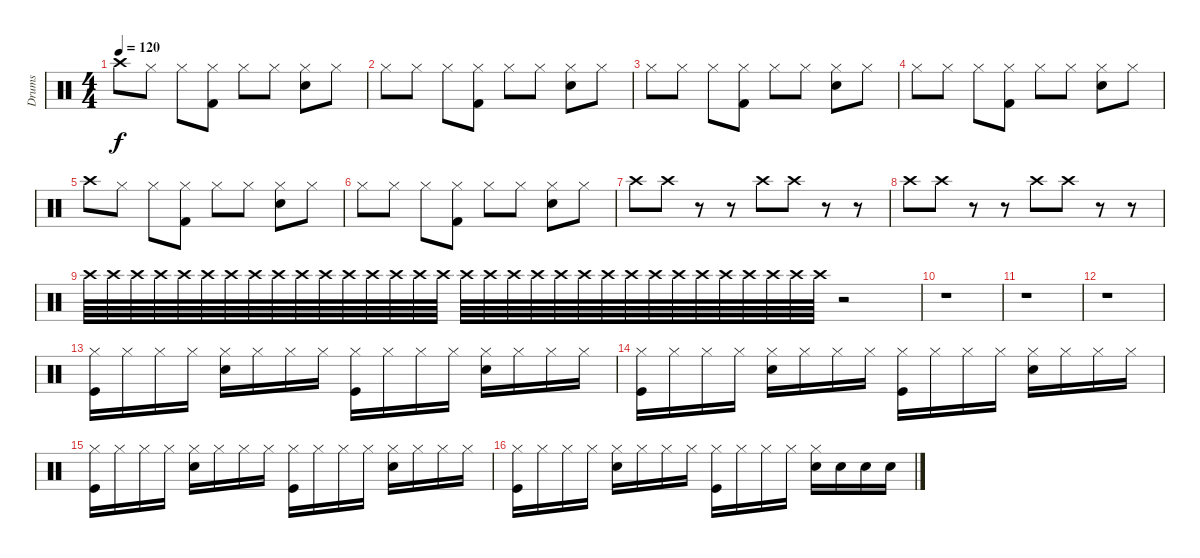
\track ("Drums" "Drums") {instrument percussion}
\staff {score}
\articulation defaults
\ts (4 4)
\tempo 120
\clef neutral
\ks c "Crash high (hit)".8{dy f} "Hi-Hat (closed)".8 "Hi-Hat (closed)".8
("Kick (hit) 2" "Hi-Hat (closed)").8 "Hi-Hat (closed)".8 "Hi-Hat (closed)".8 ("Electric Snare (hit)" "Hi-Hat (closed)").8 "Hi-Hat (closed)".8 |
"Hi-Hat (closed)".8 "Hi-Hat (closed)".8 "Hi-Hat (closed)".8 ("Kick (hit) 2" "Hi-Hat (closed)").8 "Hi-Hat (closed)".8 "Hi-Hat (closed)".8 ("Electric Snare (hit)" "Hi-Hat (closed)").8 "Hi-Hat (closed)".8 |
"Hi-Hat (closed)".8 "Hi-Hat (closed)".8 "Hi-Hat (closed)".8 ("Kick (hit) 2" "Hi-Hat (closed)").8 "Hi-Hat (closed)".8 "Hi-Hat (closed)".8 ("Electric Snare (hit)" "Hi-Hat (closed)").8 "Hi-Hat (closed)".8 |
"Hi-Hat (closed)".8 "Hi-Hat (closed)".8 "Hi-Hat (closed)".8 ("Kick (hit) 2" "Hi-Hat (closed)").8 "Hi-Hat (closed)".8 "Hi-Hat (closed)".8 ("Electric Snare (hit)" "Hi-Hat (closed)").8 "Hi-Hat (closed)".8 |
"Crash high (hit)".8 "Hi-Hat (closed)".8 "Hi-Hat (closed)".8 ("Kick (hit) 2" "Hi-Hat (closed)").8 "Hi-Hat (closed)".8 "Hi-Hat (closed)".8 ("Electric Snare (hit)" "Hi-Hat (closed)").8 "Hi-Hat (closed)".8 |
"Hi-Hat (closed)".8 "Hi-Hat (closed)".8 "Hi-Hat (closed)".8 ("Kick (hit) 2" "Hi-Hat (closed)").8 "Hi-Hat (closed)".8 "Hi-Hat (closed)".8 ("Electric Snare (hit)" "Hi-Hat (closed)").8 "Hi-Hat (closed)".8 |
"Crash high (hit)".8 "Crash high (hit)".8 r.8 r.8 "Crash high (hit)".8 "Crash high (hit)".8 r.8 r.8 |
"Crash high (hit)".8 "Crash high (hit)".8 r.8 r.8 "Crash high (hit)".8 "Crash high (hit)".8 r.8 r.8 |
"Crash high (hit)".64 "Crash high (hit)".64 "Crash high (hit)".64 "Crash high (hit)".64 "Crash high (hit)".64 "Crash high (hit)".64 "Crash high (hit)".64 "Crash high (hit)".64 "Crash high (hit)".64 "Crash high (hit)".64 "Crash high (hit)".64 "Crash high (hit)".64 "Crash high (hit)".64 "Crash high (hit)".64 "Crash high (hit)".64 "Crash high (hit)".64 "Crash high (hit)".64 "Crash high (hit)".64 "Crash high (hit)".64 "Crash high (hit)".64 "Crash high (hit)".64 "Crash high (hit)".64 "Crash high (hit)".64 "Crash high (hit)".64 "Crash high (hit)".64 "Crash high (hit)".64 "Crash high (hit)".64 "Crash high (hit)".64 "Crash high (hit)".64 "Crash high (hit)".64 "Crash high (hit)".64 "Crash high (hit)".64 r.2 |
r.1 |
r.1 |
r.1 |
("Hi-Hat (closed)" "Kick (hit)").16 "Hi-Hat (closed)".16 "Hi-Hat (closed)".16 "Hi-Hat (closed)".16 ("Hi-Hat (closed)" "Electric Snare (hit)").16 "Hi-Hat (closed)".16 "Hi-Hat (closed)".16 "Hi-Hat (closed)".16 ("Hi-Hat (closed)" "Kick (hit)").16 "Hi-Hat (closed)".16 "Hi-Hat (closed)".16 "Hi-Hat (closed)".16 ("Hi-Hat (closed)" "Electric Snare (hit)").16 "Hi-Hat (closed)".16 "Hi-Hat (closed)".16 "Hi-Hat (closed)".16 |
("Hi-Hat (closed)" "Kick (hit)").16 "Hi-Hat (closed)".16 "Hi-Hat (closed)".16 "Hi-Hat (closed)".16 ("Hi-Hat (closed)" "Electric Snare (hit)").16 "Hi-Hat (closed)".16 "Hi-Hat (closed)".16 "Hi-Hat (closed)".16 ("Hi-Hat (closed)" "Kick (hit)").16 "Hi-Hat (closed)".16 "Hi-Hat (closed)".16 "Hi-Hat (closed)".16 ("Hi-Hat (closed)" "Electric Snare (hit)").16 "Hi-Hat (closed)".16 "Hi-Hat (closed)".16 "Hi-Hat (closed)".16 |
("Hi-Hat (closed)" "Kick (hit)").16 "Hi-Hat (closed)".16 "Hi-Hat (closed)".16 "Hi-Hat (closed)".16 ("Hi-Hat (closed)" "Electric Snare (hit)").16 "Hi-Hat (closed)".16 "Hi-Hat (closed)".16 "Hi-Hat (closed)".16 ("Hi-Hat (closed)" "Kick (hit)").16 "Hi-Hat (closed)".16 "Hi-Hat (closed)".16 "Hi-Hat (closed)".16 ("Hi-Hat (closed)" "Electric Snare (hit)").16 "Hi-Hat (closed)".16 "Hi-Hat (closed)".16 "Hi-Hat (closed)".16 |
("Hi-Hat (closed)" "Kick (hit)").16 "Hi-Hat (closed)".16 "Hi-Hat (closed)".16 "Hi-Hat (closed)".16 ("Hi-Hat (closed)" "Electric Snare (hit)").16 "Hi-Hat (closed)".16 "Hi-Hat (closed)".16 "Hi-Hat (closed)".16 ("Hi-Hat (closed)" "Kick (hit)").16 "Hi-Hat (closed)".16 "Hi-Hat (closed)".16 "Hi-Hat (closed)".16 ("Hi-Hat (closed)" "Electric Snare (hit)").16 "Electric Snare (hit)".16 "Electric Snare (hit)".16 "Electric Snare (hit)".16
